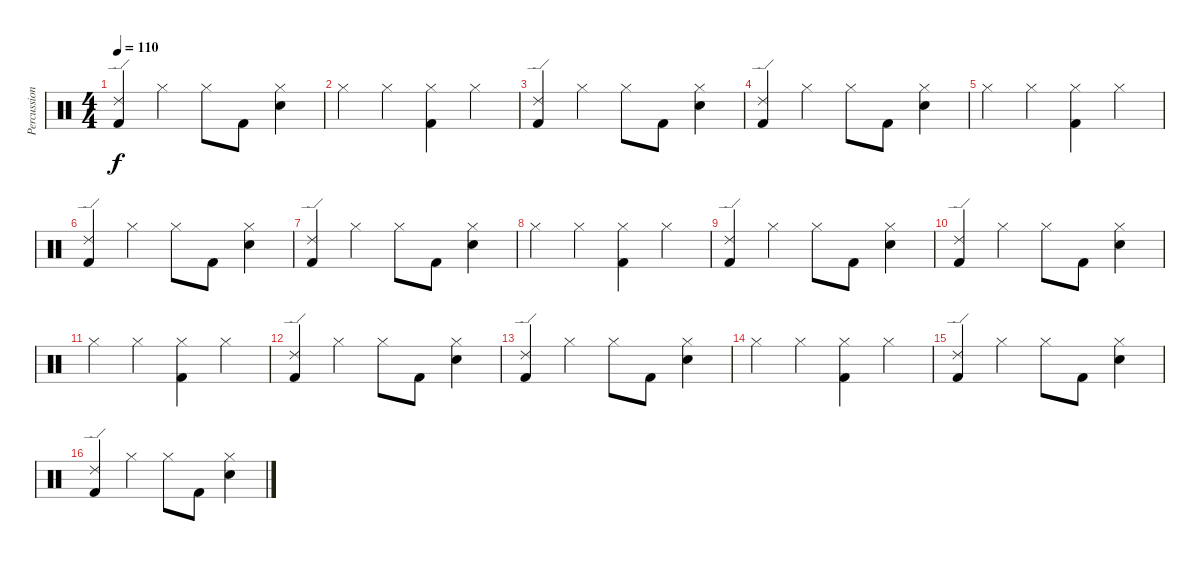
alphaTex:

\track ("Percussion" "Percussion") {instrument percussion}
\staff {score}
\articulation defaults
\ts (4 4)
\tempo 110
\clef neutral
\ks c
("Ride (edge) 2" "Kick (hit) 2").4{dy f} "Hi-Hat (closed)".4 "Hi-Hat (closed)".8 "Kick (hit) 2".8 ("Hi-Hat (closed)" "Electric Snare (hit)").4 |
"Hi-Hat (closed)".4 "Hi-Hat (closed)".4 ("Hi-Hat (closed)" "Kick (hit) 2").4 "Hi-Hat (closed)".4 |
("Ride (edge) 2" "Kick (hit) 2").4 "Hi-Hat (closed)".4 "Hi-Hat (closed)".8 "Kick (hit) 2".8 ("Hi-Hat (closed)" "Electric Snare (hit)").4 |
("Ride (edge) 2" "Kick (hit) 2").4 "Hi-Hat (closed)".4 "Hi-Hat (closed)".8 "Kick (hit) 2".8 ("Hi-Hat (closed)" "Electric Snare (hit)").4 |
"Hi-Hat (closed)".4 "Hi-Hat (closed)".4 ("Hi-Hat (closed)" "Kick (hit) 2").4 "Hi-Hat (closed)".4 |
("Ride (edge) 2" "Kick (hit) 2").4 "Hi-Hat (closed)".4 "Hi-Hat (closed)".8 "Kick (hit) 2".8 ("Hi-Hat (closed)" "Electric Snare (hit)").4 |
("Ride (edge) 2" "Kick (hit) 2").4 "Hi-Hat (closed)".4 "Hi-Hat (closed)".8 "Kick (hit) 2".8 ("Hi-Hat (closed)" "Electric Snare (hit)").4 |
"Hi-Hat (closed)".4 "Hi-Hat (closed)".4 ("Hi-Hat (closed)" "Kick (hit) 2").4 "Hi-Hat (closed)".4 |
("Ride (edge) 2" "Kick (hit) 2").4 "Hi-Hat (closed)".4 "Hi-Hat (closed)".8 "Kick (hit) 2".8 ("Hi-Hat (closed)" "Electric Snare (hit)").4 |
("Ride (edge) 2" "Kick (hit) 2").4 "Hi-Hat (closed)".4 "Hi-Hat (closed)".8 "Kick (hit) 2".8 ("Hi-Hat (closed)" "Electric Snare (hit)").4 |
"Hi-Hat (closed)".4 "Hi-Hat (closed)".4 ("Hi-Hat (closed)" "Kick (hit) 2").4 "Hi-Hat (closed)".4 |
("Ride (edge) 2" "Kick (hit) 2").4 "Hi-Hat (closed)".4 "Hi-Hat (closed)".8 "Kick (hit) 2".8 ("Hi-Hat (closed)" "Electric Snare (hit)").4 |
("Ride (edge) 2" "Kick (hit) 2").4 "Hi-Hat (closed)".4 "Hi-Hat (closed)".8 "Kick (hit) 2".8 ("Hi-Hat (closed)" "Electric Snare (hit)").4 |
"Hi-Hat (closed)".4 "Hi-Hat (closed)".4 ("Hi-Hat (closed)" "Kick (hit) 2").4 "Hi-Hat (closed)".4 |
("Ride (edge) 2" "Kick (hit) 2").4 "Hi-Hat (closed)".4 "Hi-Hat (closed)".8 "Kick (hit) 2".8 ("Hi-Hat (closed)" "Electric Snare (hit)").4 |
("Ride (edge) 2" "Kick (hit) 2").4 "Hi-Hat (closed)".4 "Hi-Hat (closed)".8 "Kick (hit) 2".8 ("Hi-Hat (closed)" "Electric Snare (hit)").4
